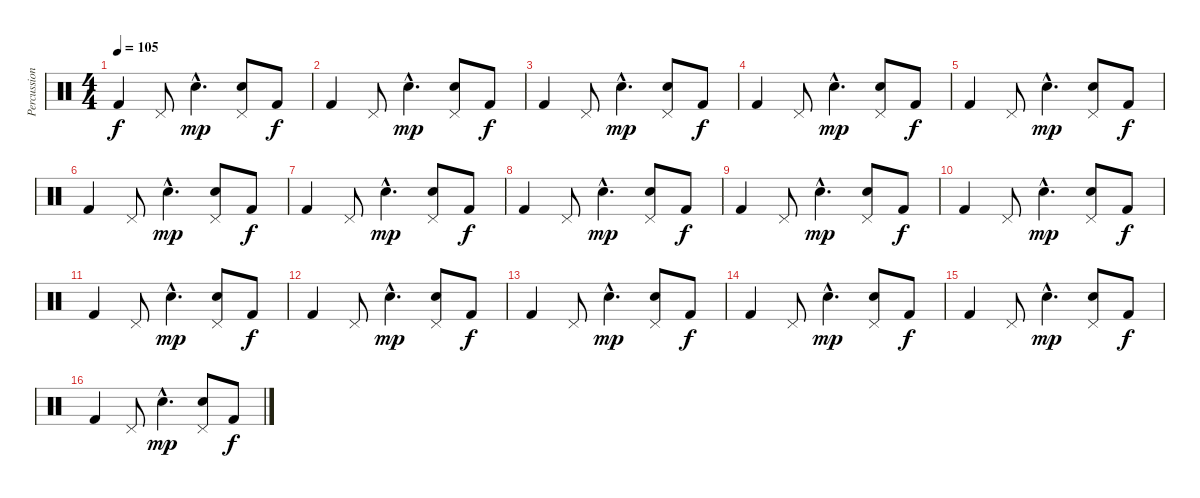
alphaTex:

\track ("Percussion" "Percussion") {instrument percussion}
\staff {score}
\articulation defaults
\ts (4 4)
\tempo 105
\clef neutral
\ks c "Kick (hit) 2".4{dy f} "Pedal Hi-Hat (hit)".8 "Hand Clap (hit)"{hac}.4{d dy mp}
("Pedal Hi-Hat (hit)" "Hand Clap (hit)").8 "Kick (hit) 2".8{dy f} |
"Kick (hit) 2".4 "Pedal Hi-Hat (hit)".8 "Hand Clap (hit)"{hac}.4{d dy mp} ("Pedal Hi-Hat (hit)" "Hand Clap (hit)").8 "Kick (hit) 2".8{dy f} |
"Kick (hit) 2".4 "Pedal Hi-Hat (hit)".8 "Hand Clap (hit)"{hac}.4{d dy mp} ("Pedal Hi-Hat (hit)" "Hand Clap (hit)").8 "Kick (hit) 2".8{dy f} |
"Kick (hit) 2".4 "Pedal Hi-Hat (hit)".8 "Hand Clap (hit)"{hac}.4{d dy mp} ("Pedal Hi-Hat (hit)" "Hand Clap (hit)").8 "Kick (hit) 2".8{dy f} |
"Kick (hit) 2".4 "Pedal Hi-Hat (hit)".8 "Hand Clap (hit)"{hac}.4{d dy mp} ("Pedal Hi-Hat (hit)" "Hand Clap (hit)").8 "Kick (hit) 2".8{dy f} |
"Kick (hit) 2".4 "Pedal Hi-Hat (hit)".8 "Hand Clap (hit)"{hac}.4{d dy mp} ("Pedal Hi-Hat (hit)" "Hand Clap (hit)").8 "Kick (hit) 2".8{dy f} |
"Kick (hit) 2".4 "Pedal Hi-Hat (hit)".8 "Hand Clap (hit)"{hac}.4{d dy mp} ("Pedal Hi-Hat (hit)" "Hand Clap (hit)").8 "Kick (hit) 2".8{dy f} |
"Kick (hit) 2".4 "Pedal Hi-Hat (hit)".8 "Hand Clap (hit)"{hac}.4{d dy mp} ("Pedal Hi-Hat (hit)" "Hand Clap (hit)").8 "Kick (hit) 2".8{dy f} |
"Kick (hit) 2".4 "Pedal Hi-Hat (hit)".8 "Hand Clap (hit)"{hac}.4{d dy mp} ("Pedal Hi-Hat (hit)" "Hand Clap (hit)").8 "Kick (hit) 2".8{dy f} |
"Kick (hit) 2".4 "Pedal Hi-Hat (hit)".8 "Hand Clap (hit)"{hac}.4{d dy mp} ("Pedal Hi-Hat (hit)" "Hand Clap (hit)").8 "Kick (hit) 2".8{dy f} |
"Kick (hit) 2".4 "Pedal Hi-Hat (hit)".8 "Hand Clap (hit)"{hac}.4{d dy mp} ("Pedal Hi-Hat (hit)" "Hand Clap (hit)").8 "Kick (hit) 2".8{dy f} |
"Kick (hit) 2".4 "Pedal Hi-Hat (hit)".8 "Hand Clap (hit)"{hac}.4{d dy mp} ("Pedal Hi-Hat (hit)" "Hand Clap (hit)").8 "Kick (hit) 2".8{dy f} |
"Kick (hit) 2".4 "Pedal Hi-Hat (hit)".8 "Hand Clap (hit)"{hac}.4{d dy mp} ("Pedal Hi-Hat (hit)" "Hand Clap (hit)").8 "Kick (hit) 2".8{dy f} |
"Kick (hit) 2".4 "Pedal Hi-Hat (hit)".8 "Hand Clap (hit)"{hac}.4{d dy mp} ("Pedal Hi-Hat (hit)" "Hand Clap (hit)").8 "Kick (hit) 2".8{dy f} |
"Kick (hit) 2".4 "Pedal Hi-Hat (hit)".8 "Hand Clap (hit)"{hac}.4{d dy mp} ("Pedal Hi-Hat (hit)" "Hand Clap (hit)").8 "Kick (hit) 2".8{dy f} |
"Kick (hit) 2".4 "Pedal Hi-Hat (hit)".8 "Hand Clap (hit)"{hac}.4{d dy mp} ("Pedal Hi-Hat (hit)" "Hand Clap (hit)").8 "Kick (hit) 2".8{dy f}
